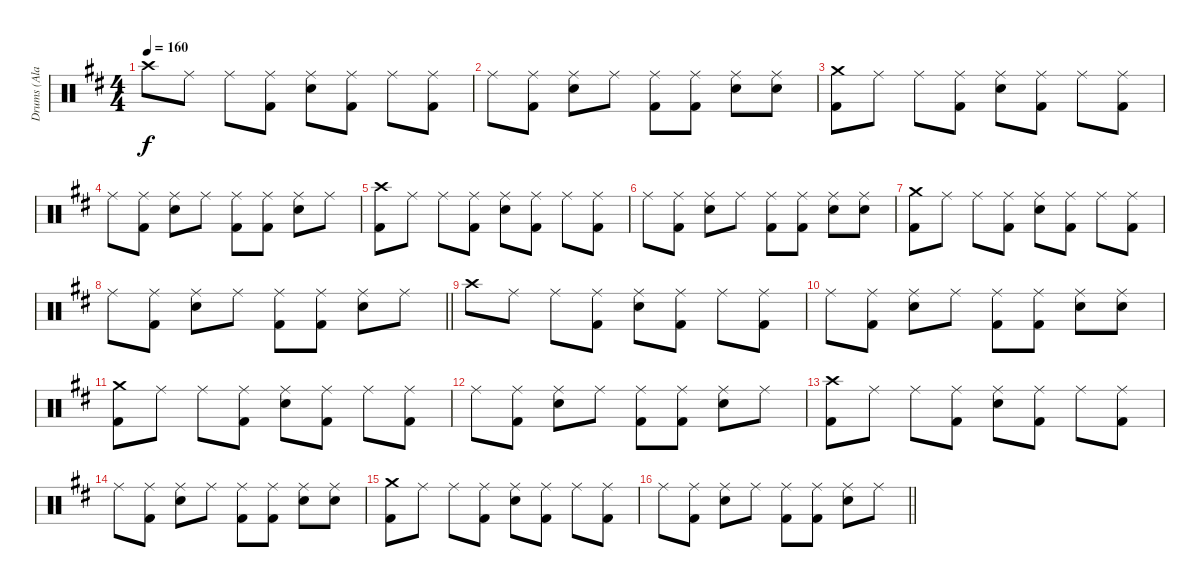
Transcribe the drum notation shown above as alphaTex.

\track ("Drums (Ala Burns)" "Drums (Ala") {instrument percussion}
\staff {score}
\articulation defaults
\ts (4 4)
\tempo 160
\clef neutral
\ks d "Crash high (hit)".8{dy f} "Ride (middle)".8 "Ride (middle)".8
("Ride (middle)" "Kick (hit) 2").8 ("Ride (middle)" "Snare (hit) 2").8 ("Ride (middle)" "Kick (hit) 2").8 "Ride (middle)".8 ("Ride (middle)" "Kick (hit) 2").8 |
"Ride (middle)".8 ("Ride (middle)" "Kick (hit) 2").8 ("Ride (middle)" "Snare (hit) 2").8 "Ride (middle)".8 ("Ride (middle)" "Kick (hit) 2").8 ("Ride (middle)" "Kick (hit) 2").8 ("Ride (middle)" "Snare (hit) 2").8 ("Ride (middle)" "Snare (hit) 2").8 |
("Crash medium (hit)" "Kick (hit) 2").8 "Ride (middle)".8 "Ride (middle)".8 ("Ride (middle)" "Kick (hit) 2").8 ("Ride (middle)" "Snare (hit) 2").8 ("Ride (middle)" "Kick (hit) 2").8 "Ride (middle)".8 ("Ride (middle)" "Kick (hit) 2").8 |
"Ride (middle)".8 ("Ride (middle)" "Kick (hit) 2").8 ("Ride (middle)" "Snare (hit) 2").8 "Ride (middle)".8 ("Ride (middle)" "Kick (hit) 2").8 ("Ride (middle)" "Kick (hit) 2").8 ("Ride (middle)" "Snare (hit) 2").8 "Ride (middle)".8 |
("Crash high (hit)" "Kick (hit) 2").8 "Ride (middle)".8 "Ride (middle)".8 ("Ride (middle)" "Kick (hit) 2").8 ("Ride (middle)" "Snare (hit) 2").8 ("Ride (middle)" "Kick (hit) 2").8 "Ride (middle)".8 ("Ride (middle)" "Kick (hit) 2").8 |
"Ride (middle)".8 ("Ride (middle)" "Kick (hit) 2").8 ("Ride (middle)" "Snare (hit) 2").8 "Ride (middle)".8 ("Ride (middle)" "Kick (hit) 2").8 ("Ride (middle)" "Kick (hit) 2").8 ("Ride (middle)" "Snare (hit) 2").8 ("Ride (middle)" "Snare (hit) 2").8 |
("Crash medium (hit)" "Kick (hit) 2").8 "Ride (middle)".8 "Ride (middle)".8 ("Ride (middle)" "Kick (hit) 2").8 ("Ride (middle)" "Snare (hit) 2").8 ("Ride (middle)" "Kick (hit) 2").8 "Ride (middle)".8 ("Ride (middle)" "Kick (hit) 2").8 |
\barLineRight lightlight "Ride (middle)".8
("Ride (middle)" "Kick (hit) 2").8 ("Ride (middle)" "Snare (hit) 2").8 "Ride (middle)".8 ("Ride (middle)" "Kick (hit) 2").8 ("Ride (middle)" "Kick (hit) 2").8 ("Ride (middle)" "Snare (hit) 2").8 "Ride (middle)".8 |
"Crash high (hit)".8 "Ride (middle)".8 "Ride (middle)".8 ("Ride (middle)" "Kick (hit) 2").8 ("Ride (middle)" "Snare (hit) 2").8 ("Ride (middle)" "Kick (hit) 2").8 "Ride (middle)".8 ("Ride (middle)" "Kick (hit) 2").8 |
"Ride (middle)".8 ("Ride (middle)" "Kick (hit) 2").8 ("Ride (middle)" "Snare (hit) 2").8 "Ride (middle)".8 ("Ride (middle)" "Kick (hit) 2").8 ("Ride (middle)" "Kick (hit) 2").8 ("Ride (middle)" "Snare (hit) 2").8 ("Ride (middle)" "Snare (hit) 2").8 |
("Crash medium (hit)" "Kick (hit) 2").8 "Ride (middle)".8 "Ride (middle)".8 ("Ride (middle)" "Kick (hit) 2").8 ("Ride (middle)" "Snare (hit) 2").8 ("Ride (middle)" "Kick (hit) 2").8 "Ride (middle)".8 ("Ride (middle)" "Kick (hit) 2").8 |
"Ride (middle)".8 ("Ride (middle)" "Kick (hit) 2").8 ("Ride (middle)" "Snare (hit) 2").8 "Ride (middle)".8 ("Ride (middle)" "Kick (hit) 2").8 ("Ride (middle)" "Kick (hit) 2").8 ("Ride (middle)" "Snare (hit) 2").8 "Ride (middle)".8 |
("Crash high (hit)" "Kick (hit) 2").8 "Ride (middle)".8 "Ride (middle)".8 ("Ride (middle)" "Kick (hit) 2").8 ("Ride (middle)" "Snare (hit) 2").8 ("Ride (middle)" "Kick (hit) 2").8 "Ride (middle)".8 ("Ride (middle)" "Kick (hit) 2").8 |
"Ride (middle)".8 ("Ride (middle)" "Kick (hit) 2").8 ("Ride (middle)" "Snare (hit) 2").8 "Ride (middle)".8 ("Ride (middle)" "Kick (hit) 2").8 ("Ride (middle)" "Kick (hit) 2").8 ("Ride (middle)" "Snare (hit) 2").8 ("Ride (middle)" "Snare (hit) 2").8 |
("Crash medium (hit)" "Kick (hit) 2").8 "Ride (middle)".8 "Ride (middle)".8 ("Ride (middle)" "Kick (hit) 2").8 ("Ride (middle)" "Snare (hit) 2").8 ("Ride (middle)" "Kick (hit) 2").8 "Ride (middle)".8 ("Ride (middle)" "Kick (hit) 2").8 |
\barLineRight lightlight "Ride (middle)".8
("Ride (middle)" "Kick (hit) 2").8 ("Ride (middle)" "Snare (hit) 2").8 "Ride (middle)".8 ("Ride (middle)" "Kick (hit) 2").8 ("Ride (middle)" "Kick (hit) 2").8 ("Ride (middle)" "Snare (hit) 2").8 "Ride (middle)".8
